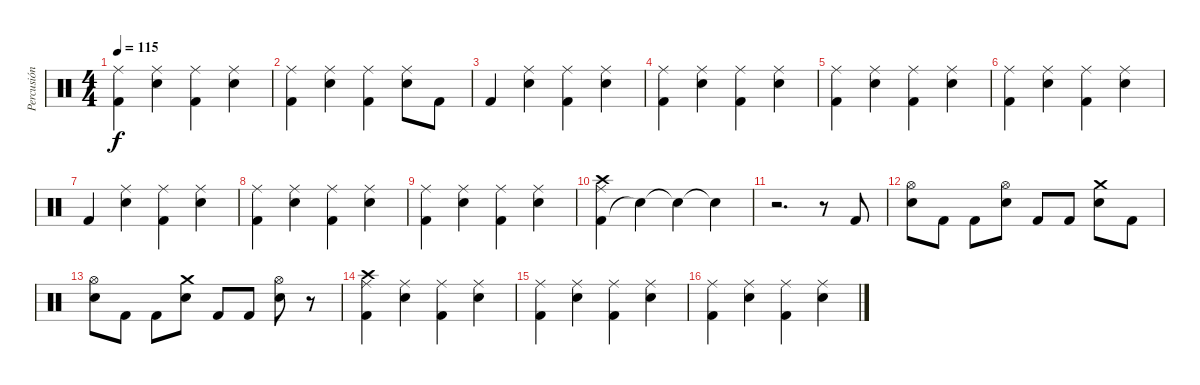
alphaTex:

\track ("Percusión" "Percusión") {instrument percussion}
\staff {score}
\articulation defaults
\ts (4 4)
\tempo 115
\clef neutral
\ks c
("Kick (hit) 2" "Ride (middle)").4{dy f} ("Snare (hit) 2" "Ride (middle)").4 ("Kick (hit) 2" "Ride (middle)").4 ("Snare (hit) 2" "Ride (middle)").4 |
("Kick (hit) 2" "Ride (middle)").4 ("Snare (hit) 2" "Ride (middle)").4 ("Kick (hit) 2" "Ride (middle)").4 ("Snare (hit) 2" "Ride (middle)").8 "Kick (hit) 2".8 |
"Kick (hit) 2".4 ("Snare (hit) 2" "Ride (middle)").4 ("Kick (hit) 2" "Ride (middle)").4 ("Snare (hit) 2" "Ride (middle)").4 |
("Kick (hit) 2" "Ride (middle)").4 ("Snare (hit) 2" "Ride (middle)").4 ("Kick (hit) 2" "Ride (middle)").4 ("Snare (hit) 2" "Ride (middle)").4 |
("Kick (hit) 2" "Ride (middle)").4 ("Snare (hit) 2" "Ride (middle)").4 ("Kick (hit) 2" "Ride (middle)").4 ("Snare (hit) 2" "Ride (middle)").4 |
("Kick (hit) 2" "Ride (middle)").4 ("Snare (hit) 2" "Ride (middle)").4 ("Kick (hit) 2" "Ride (middle)").4 ("Snare (hit) 2" "Ride (middle)").4 |
"Kick (hit) 2".4 ("Snare (hit) 2" "Ride (middle)").4 ("Kick (hit) 2" "Ride (middle)").4 ("Snare (hit) 2" "Ride (middle)").4 |
("Kick (hit) 2" "Ride (middle)").4 ("Snare (hit) 2" "Ride (middle)").4 ("Kick (hit) 2" "Ride (middle)").4 ("Snare (hit) 2" "Ride (middle)").4 |
("Kick (hit) 2" "Ride (middle)").4 ("Snare (hit) 2" "Ride (middle)").4 ("Kick (hit) 2" "Ride (middle)").4 ("Snare (hit) 2" "Ride (middle)").4 |
("Kick (hit) 2" "Ride (middle)" "Crash high (hit)").4 "Snare (hit)"{t}.4 "Snare (hit)"{t}.4 "Snare (hit)"{t}.4 |
r.2{d} r.8 "Kick (hit) 2".8 |
("Snare (hit) 2" "Hi-Hat (open)").8 "Kick (hit) 2".8 "Kick (hit) 2".8 ("Snare (hit) 2" "Hi-Hat (open)").8 "Kick (hit) 2".8 "Kick (hit) 2".8 ("Snare (hit) 2" "Crash medium (hit)").8 "Kick (hit) 2".8 |
("Snare (hit) 2" "Hi-Hat (open)").8 "Kick (hit) 2".8 "Kick (hit) 2".8 ("Snare (hit) 2" "Crash medium (hit)").8 "Kick (hit) 2".8 "Kick (hit) 2".8 ("Snare (hit) 2" "Hi-Hat (open)").8 r.8 |
("Kick (hit) 2" "Ride (middle)" "Crash high (hit)").4 ("Snare (hit) 2" "Ride (middle)").4 ("Kick (hit) 2" "Ride (middle)").4 ("Snare (hit) 2" "Ride (middle)").4 |
("Kick (hit) 2" "Ride (middle)").4 ("Snare (hit) 2" "Ride (middle)").4 ("Kick (hit) 2" "Ride (middle)").4 ("Snare (hit) 2" "Ride (middle)").4 |
("Kick (hit) 2" "Ride (middle)").4 ("Snare (hit) 2" "Ride (middle)").4 ("Kick (hit) 2" "Ride (middle)").4 ("Snare (hit) 2" "Ride (middle)").4
